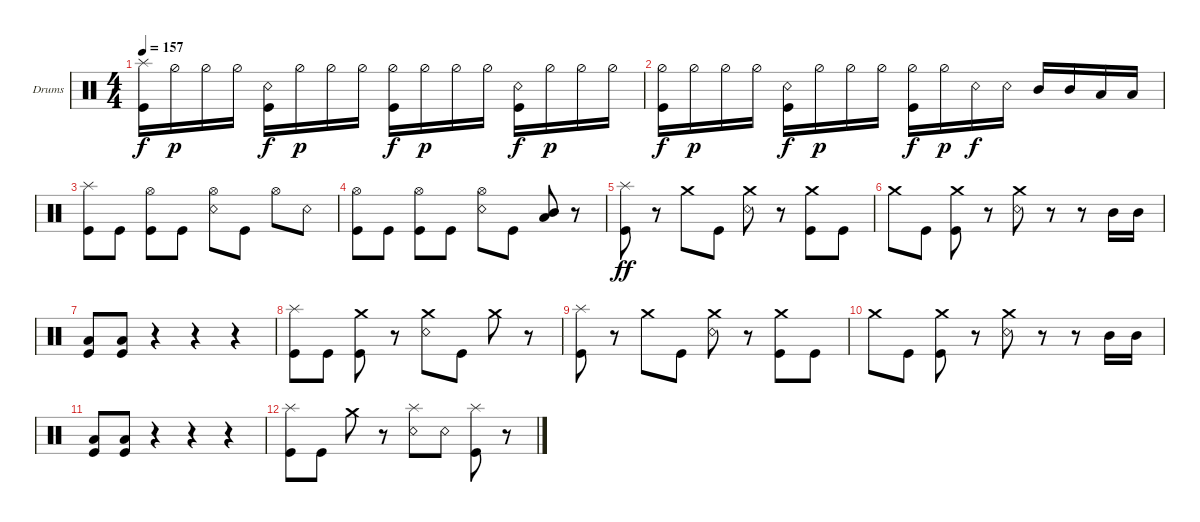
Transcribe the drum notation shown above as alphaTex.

\defaultSystemsLayout 4
\bracketExtendMode groupsimilarinstruments
\firstSystemTrackNameOrientation horizontal
\otherSystemsTrackNameOrientation horizontal
\track ("Drumkit" "Drums") {instrument percussion}
\staff {score}
\articulation defaults
\ts (4 4)
\tempo 157
\clef neutral
\ks c
("Kick (hit)" "Splash (hit)").16{dy f} "Hi-Hat (half)".16{dy p} "Hi-Hat (half)".16 "Hi-Hat (half)".16 ("Kick (hit)" "Snare (rim shot)").16{dy f} "Hi-Hat (half)".16{dy p} "Hi-Hat (half)".16 "Hi-Hat (half)".16 ("Hi-Hat (half)" "Kick (hit)").16{dy f} "Hi-Hat (half)".16{dy p} "Hi-Hat (half)".16 "Hi-Hat (half)".16 ("Kick (hit)" "Snare (rim shot)").16{dy f} "Hi-Hat (half)".16{dy p} "Hi-Hat (half)".16 "Hi-Hat (half)".16 |
("Kick (hit)" "Hi-Hat (half)").16{dy f} "Hi-Hat (half)".16{dy p} "Hi-Hat (half)".16 "Hi-Hat (half)".16 ("Kick (hit)" "Snare (rim shot)").16{dy f} "Hi-Hat (half)".16{dy p} "Hi-Hat (half)".16 "Hi-Hat (half)".16 ("Hi-Hat (half)" "Kick (hit)").16{dy f} "Hi-Hat (half)".16{dy p} "Snare (rim shot)".16{dy f} "Snare (rim shot)".16 "Mid Tom (hit)".16 "Mid Tom (hit)".16 "Low Tom (hit)".16 "Low Tom (hit)".16 |
("Kick (hit)" "Splash (hit)").8 "Kick (hit)".8 ("Hi-Hat (open)" "Kick (hit)").8 "Kick (hit)".8 ("Hi-Hat (open)" "Snare (rim shot)").8 "Kick (hit)".8 "Hi-Hat (open)".8 "Snare (rim shot)".8 |
("Kick (hit)" "Hi-Hat (open)").8 "Kick (hit)".8 ("Hi-Hat (open)" "Kick (hit)").8 "Kick (hit)".8 ("Hi-Hat (open)" "Snare (rim shot)").8 "Kick (hit)".8 ("Mid Tom (hit)" "Low Tom (hit)").8 r.8 |
("Kick (hit)" "Splash (hit)").8{dy ff} r.8 "Crash medium (hit)".8 "Kick (hit)".8 ("Crash medium (hit)" "Snare (rim shot)").8 r.8 ("Crash medium (hit)" "Kick (hit)").8 "Kick (hit)".8 |
"Crash medium (hit)".8 "Kick (hit)".8 ("Kick (hit)" "Crash medium (hit)").8 r.8 ("Crash medium (hit)" "Snare (rim shot)").8 r.8 r.8 "Mid Tom (hit)".16 "Mid Tom (hit)".16 |
("Kick (hit)" "Low Tom (hit)").8 ("Kick (hit)" "Low Tom (hit)").8 r.4 r.4 r.4 |
("Kick (hit)" "Splash (hit)").8 "Kick (hit)".8 ("Crash medium (hit)" "Kick (hit)").8 r.8 ("Crash medium (hit)" "Snare (rim shot)").8 "Kick (hit)".8 "Crash medium (hit)".8 r.8 |
("Kick (hit)" "Splash (hit)").8 r.8 "Crash medium (hit)".8 "Kick (hit)".8 ("Crash medium (hit)" "Snare (rim shot)").8 r.8 ("Crash medium (hit)" "Kick (hit)").8 "Kick (hit)".8 |
"Crash medium (hit)".8 "Kick (hit)".8 ("Kick (hit)" "Crash medium (hit)").8 r.8 ("Crash medium (hit)" "Snare (rim shot)").8 r.8 r.8 "Mid Tom (hit)".16 "Mid Tom (hit)".16 |
("Kick (hit)" "Low Tom (hit)").8 ("Kick (hit)" "Low Tom (hit)").8 r.4 r.4 r.4 |
("Kick (hit)" "Splash (hit)").8 "Kick (hit)".8 "Crash medium (hit)".8 r.8 ("Splash (hit)" "Snare (rim shot)").8 "Snare (rim shot)".8 ("Kick (hit)" "Splash (hit)").8 r.8
